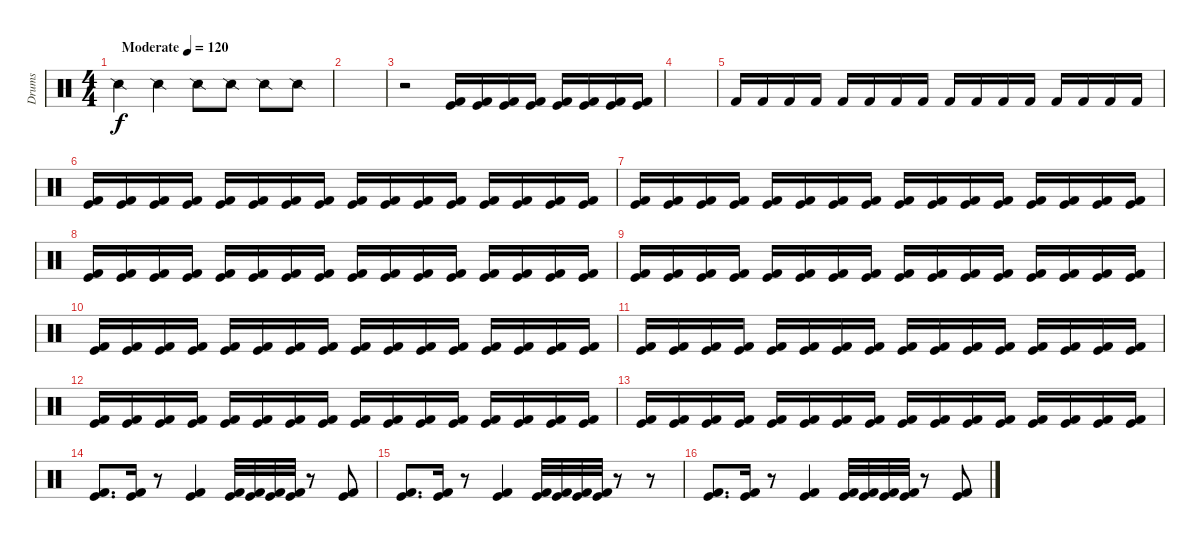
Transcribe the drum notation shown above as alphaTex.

\track ("Drums" "Drums") {instrument percussion}
\staff {score}
\articulation defaults
\ts (4 4)
\tempo (120 "Moderate")
\clef neutral
\ks c "Snare (side stick) 2".4{dy f} "Snare (side stick) 2".4 "Snare (side stick) 2".8 "Snare (side stick) 2".8 "Snare (side stick) 2".8 "Snare (side stick) 2".8
|
|
r.2 ("Kick (hit) 2" "Kick (hit)").16 ("Kick (hit) 2" "Kick (hit)").16 ("Kick (hit) 2" "Kick (hit)").16 ("Kick (hit) 2" "Kick (hit)").16 ("Kick (hit) 2" "Kick (hit)").16 ("Kick (hit) 2" "Kick (hit)").16 ("Kick (hit) 2" "Kick (hit)").16 ("Kick (hit) 2" "Kick (hit)").16 |
|
"Kick (hit) 2".16 "Kick (hit) 2".16 "Kick (hit) 2".16 "Kick (hit) 2".16 "Kick (hit) 2".16 "Kick (hit) 2".16 "Kick (hit) 2".16 "Kick (hit) 2".16 "Kick (hit) 2".16 "Kick (hit) 2".16 "Kick (hit) 2".16 "Kick (hit) 2".16 "Kick (hit) 2".16 "Kick (hit) 2".16 "Kick (hit) 2".16 "Kick (hit) 2".16 |
("Kick (hit) 2" "Kick (hit)").16 ("Kick (hit) 2" "Kick (hit)").16 ("Kick (hit) 2" "Kick (hit)").16 ("Kick (hit) 2" "Kick (hit)").16 ("Kick (hit) 2" "Kick (hit)").16 ("Kick (hit) 2" "Kick (hit)").16 ("Kick (hit) 2" "Kick (hit)").16 ("Kick (hit) 2" "Kick (hit)").16 ("Kick (hit) 2" "Kick (hit)").16 ("Kick (hit) 2" "Kick (hit)").16 ("Kick (hit) 2" "Kick (hit)").16 ("Kick (hit) 2" "Kick (hit)").16 ("Kick (hit) 2" "Kick (hit)").16 ("Kick (hit) 2" "Kick (hit)").16 ("Kick (hit) 2" "Kick (hit)").16 ("Kick (hit) 2" "Kick (hit)").16 |
("Kick (hit) 2" "Kick (hit)").16 ("Kick (hit) 2" "Kick (hit)").16 ("Kick (hit) 2" "Kick (hit)").16 ("Kick (hit) 2" "Kick (hit)").16 ("Kick (hit) 2" "Kick (hit)").16 ("Kick (hit) 2" "Kick (hit)").16 ("Kick (hit) 2" "Kick (hit)").16 ("Kick (hit) 2" "Kick (hit)").16 ("Kick (hit) 2" "Kick (hit)").16 ("Kick (hit) 2" "Kick (hit)").16 ("Kick (hit) 2" "Kick (hit)").16 ("Kick (hit) 2" "Kick (hit)").16 ("Kick (hit) 2" "Kick (hit)").16 ("Kick (hit) 2" "Kick (hit)").16 ("Kick (hit) 2" "Kick (hit)").16 ("Kick (hit) 2" "Kick (hit)").16 |
("Kick (hit) 2" "Kick (hit)").16 ("Kick (hit) 2" "Kick (hit)").16 ("Kick (hit) 2" "Kick (hit)").16 ("Kick (hit) 2" "Kick (hit)").16 ("Kick (hit) 2" "Kick (hit)").16 ("Kick (hit) 2" "Kick (hit)").16 ("Kick (hit) 2" "Kick (hit)").16 ("Kick (hit) 2" "Kick (hit)").16 ("Kick (hit) 2" "Kick (hit)").16 ("Kick (hit) 2" "Kick (hit)").16 ("Kick (hit) 2" "Kick (hit)").16 ("Kick (hit) 2" "Kick (hit)").16 ("Kick (hit) 2" "Kick (hit)").16 ("Kick (hit) 2" "Kick (hit)").16 ("Kick (hit) 2" "Kick (hit)").16 ("Kick (hit) 2" "Kick (hit)").16 |
("Kick (hit) 2" "Kick (hit)").16 ("Kick (hit) 2" "Kick (hit)").16 ("Kick (hit) 2" "Kick (hit)").16 ("Kick (hit) 2" "Kick (hit)").16 ("Kick (hit) 2" "Kick (hit)").16 ("Kick (hit) 2" "Kick (hit)").16 ("Kick (hit) 2" "Kick (hit)").16 ("Kick (hit) 2" "Kick (hit)").16 ("Kick (hit) 2" "Kick (hit)").16 ("Kick (hit) 2" "Kick (hit)").16 ("Kick (hit) 2" "Kick (hit)").16 ("Kick (hit) 2" "Kick (hit)").16 ("Kick (hit) 2" "Kick (hit)").16 ("Kick (hit) 2" "Kick (hit)").16 ("Kick (hit) 2" "Kick (hit)").16 ("Kick (hit) 2" "Kick (hit)").16 |
("Kick (hit) 2" "Kick (hit)").16 ("Kick (hit) 2" "Kick (hit)").16 ("Kick (hit) 2" "Kick (hit)").16 ("Kick (hit) 2" "Kick (hit)").16 ("Kick (hit) 2" "Kick (hit)").16 ("Kick (hit) 2" "Kick (hit)").16 ("Kick (hit) 2" "Kick (hit)").16 ("Kick (hit) 2" "Kick (hit)").16 ("Kick (hit) 2" "Kick (hit)").16 ("Kick (hit) 2" "Kick (hit)").16 ("Kick (hit) 2" "Kick (hit)").16 ("Kick (hit) 2" "Kick (hit)").16 ("Kick (hit) 2" "Kick (hit)").16 ("Kick (hit) 2" "Kick (hit)").16 ("Kick (hit) 2" "Kick (hit)").16 ("Kick (hit) 2" "Kick (hit)").16 |
("Kick (hit) 2" "Kick (hit)").16 ("Kick (hit) 2" "Kick (hit)").16 ("Kick (hit) 2" "Kick (hit)").16 ("Kick (hit) 2" "Kick (hit)").16 ("Kick (hit) 2" "Kick (hit)").16 ("Kick (hit) 2" "Kick (hit)").16 ("Kick (hit) 2" "Kick (hit)").16 ("Kick (hit) 2" "Kick (hit)").16 ("Kick (hit) 2" "Kick (hit)").16 ("Kick (hit) 2" "Kick (hit)").16 ("Kick (hit) 2" "Kick (hit)").16 ("Kick (hit) 2" "Kick (hit)").16 ("Kick (hit) 2" "Kick (hit)").16 ("Kick (hit) 2" "Kick (hit)").16 ("Kick (hit) 2" "Kick (hit)").16 ("Kick (hit) 2" "Kick (hit)").16 |
("Kick (hit) 2" "Kick (hit)").16 ("Kick (hit) 2" "Kick (hit)").16 ("Kick (hit) 2" "Kick (hit)").16 ("Kick (hit) 2" "Kick (hit)").16 ("Kick (hit) 2" "Kick (hit)").16 ("Kick (hit) 2" "Kick (hit)").16 ("Kick (hit) 2" "Kick (hit)").16 ("Kick (hit) 2" "Kick (hit)").16 ("Kick (hit) 2" "Kick (hit)").16 ("Kick (hit) 2" "Kick (hit)").16 ("Kick (hit) 2" "Kick (hit)").16 ("Kick (hit) 2" "Kick (hit)").16 ("Kick (hit) 2" "Kick (hit)").16 ("Kick (hit) 2" "Kick (hit)").16 ("Kick (hit) 2" "Kick (hit)").16 ("Kick (hit) 2" "Kick (hit)").16 |
("Kick (hit) 2" "Kick (hit)").16 ("Kick (hit) 2" "Kick (hit)").16 ("Kick (hit) 2" "Kick (hit)").16 ("Kick (hit) 2" "Kick (hit)").16 ("Kick (hit) 2" "Kick (hit)").16 ("Kick (hit) 2" "Kick (hit)").16 ("Kick (hit) 2" "Kick (hit)").16 ("Kick (hit) 2" "Kick (hit)").16 ("Kick (hit) 2" "Kick (hit)").16 ("Kick (hit) 2" "Kick (hit)").16 ("Kick (hit) 2" "Kick (hit)").16 ("Kick (hit) 2" "Kick (hit)").16 ("Kick (hit) 2" "Kick (hit)").16 ("Kick (hit) 2" "Kick (hit)").16 ("Kick (hit) 2" "Kick (hit)").16 ("Kick (hit) 2" "Kick (hit)").16 |
("Kick (hit) 2" "Kick (hit)").8{d} ("Kick (hit) 2" "Kick (hit)").16 r.8 ("Kick (hit) 2" "Kick (hit)").4 ("Kick (hit) 2" "Kick (hit)").32 ("Kick (hit) 2" "Kick (hit)").32 ("Kick (hit) 2" "Kick (hit)").32 ("Kick (hit) 2" "Kick (hit)").32 r.8 ("Kick (hit) 2" "Kick (hit)").8 |
("Kick (hit) 2" "Kick (hit)").8{d} ("Kick (hit) 2" "Kick (hit)").16 r.8 ("Kick (hit) 2" "Kick (hit)").4 ("Kick (hit) 2" "Kick (hit)").32 ("Kick (hit) 2" "Kick (hit)").32 ("Kick (hit) 2" "Kick (hit)").32 ("Kick (hit) 2" "Kick (hit)").32 r.8 r.8 |
("Kick (hit) 2" "Kick (hit)").8{d} ("Kick (hit) 2" "Kick (hit)").16 r.8 ("Kick (hit) 2" "Kick (hit)").4 ("Kick (hit) 2" "Kick (hit)").32 ("Kick (hit) 2" "Kick (hit)").32 ("Kick (hit) 2" "Kick (hit)").32 ("Kick (hit) 2" "Kick (hit)").32 r.8 ("Kick (hit) 2" "Kick (hit)").8
